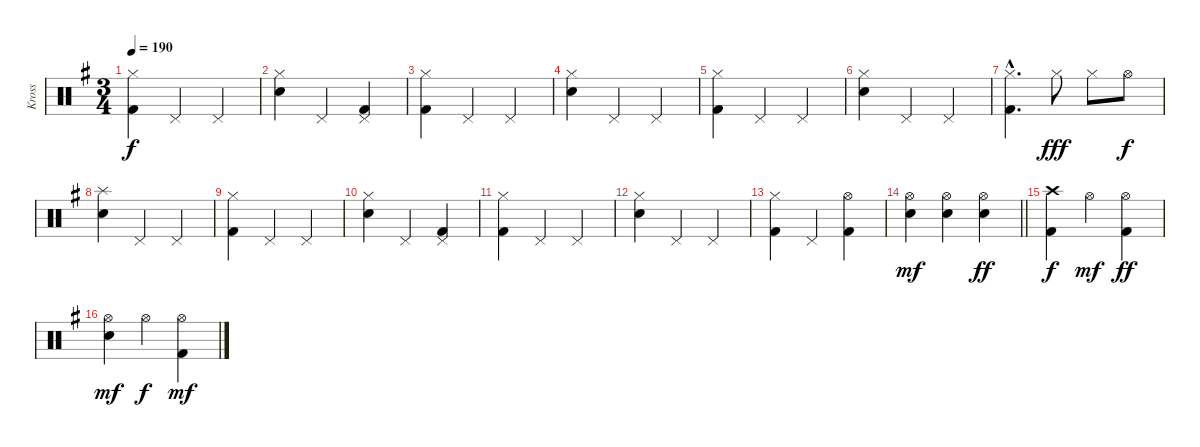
\track ("Kross" "Kross") {instrument percussion}
\staff {score}
\articulation defaults
\ts (3 4)
\tempo 190
\clef neutral
\ks g
("Hi-Hat (closed)" "Kick (hit) 2").4{dy f} "Pedal Hi-Hat (hit)".4 "Pedal Hi-Hat (hit)".4 |
("Hi-Hat (closed)" "Snare (hit) 2").4 "Pedal Hi-Hat (hit)".4 ("Pedal Hi-Hat (hit)" "Kick (hit) 2").4 |
("Hi-Hat (closed)" "Kick (hit) 2").4 "Pedal Hi-Hat (hit)".4 "Pedal Hi-Hat (hit)".4 |
("Hi-Hat (closed)" "Snare (hit) 2").4 "Pedal Hi-Hat (hit)".4 "Pedal Hi-Hat (hit)".4 |
("Hi-Hat (closed)" "Kick (hit) 2").4 "Pedal Hi-Hat (hit)".4 "Pedal Hi-Hat (hit)".4 |
("Hi-Hat (closed)" "Snare (hit) 2").4 "Pedal Hi-Hat (hit)".4 "Pedal Hi-Hat (hit)".4 |
("Hi-Hat (closed)"{hac} "Kick (hit) 2"{hac}).4{d} "Hi-Hat (closed)".8{dy fff} "Hi-Hat (closed)".8 "Hi-Hat (open)".8{dy f} |
("Splash (hit)" "Snare (hit) 2").4 "Pedal Hi-Hat (hit)".4 "Pedal Hi-Hat (hit)".4 |
("Hi-Hat (closed)" "Kick (hit) 2").4 "Pedal Hi-Hat (hit)".4 "Pedal Hi-Hat (hit)".4 |
("Hi-Hat (closed)" "Snare (hit) 2").4 "Pedal Hi-Hat (hit)".4 ("Pedal Hi-Hat (hit)" "Kick (hit) 2").4 |
("Hi-Hat (closed)" "Kick (hit) 2").4 "Pedal Hi-Hat (hit)".4 "Pedal Hi-Hat (hit)".4 |
("Hi-Hat (closed)" "Snare (hit) 2").4 "Pedal Hi-Hat (hit)".4 "Pedal Hi-Hat (hit)".4 |
("Hi-Hat (closed)" "Kick (hit) 2").4 "Pedal Hi-Hat (hit)".4 ("Hi-Hat (open)" "Kick (hit) 2").4 |
\barLineRight lightlight
("Hi-Hat (open)" "Snare (hit) 2").4{dy mf} ("Hi-Hat (open)" "Snare (hit) 2").4 ("Hi-Hat (open)" "Snare (hit) 2").4{dy ff} |
("Crash high (hit)" "Kick (hit) 2").4{dy f} "Hi-Hat (open)".4{dy mf} ("Hi-Hat (open)" "Kick (hit) 2").4{dy ff} |
("Hi-Hat (open)" "Snare (hit) 2").4{dy mf} "Hi-Hat (open)".4{dy f} ("Hi-Hat (open)" "Kick (hit) 2").4{dy mf}
